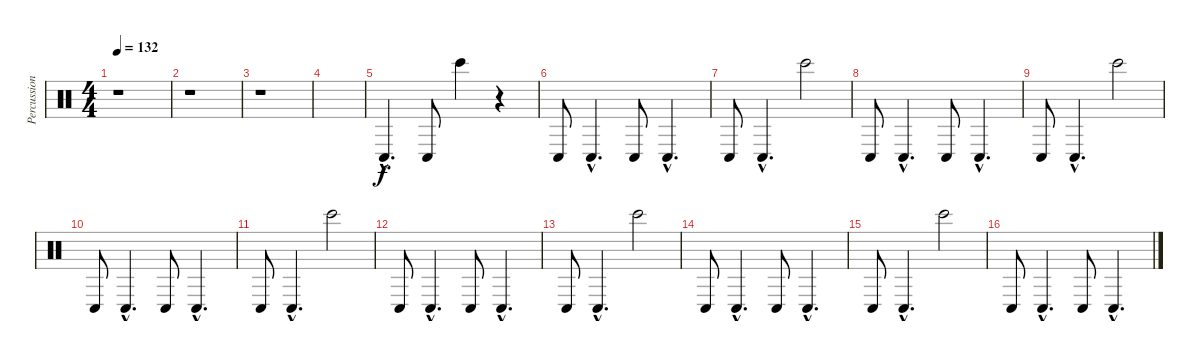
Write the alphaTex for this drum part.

\track ("Percussion" "Percussion") {instrument percussion}
\staff {score}
\articulation defaults
\ts (4 4)
\tempo 132
\clef neutral
\ks c
r.1{dy f} |
r.1 |
r.1 |
|
"Conga low (hit)"{hac}.4{d} "Conga low (hit)".8 "Bongo High (hit)".4 r.4 |
"Conga low (hit)".8 "Conga low (hit)"{hac}.4{d} "Conga low (hit)".8 "Conga low (hit)"{hac}.4{d} |
"Conga low (hit)".8 "Conga low (hit)"{hac}.4{d} "Bongo High (hit)".2 |
"Conga low (hit)".8 "Conga low (hit)"{hac}.4{d} "Conga low (hit)".8 "Conga low (hit)"{hac}.4{d} |
"Conga low (hit)".8 "Conga low (hit)"{hac}.4{d} "Bongo High (hit)".2 |
"Conga low (hit)".8 "Conga low (hit)"{hac}.4{d} "Conga low (hit)".8 "Conga low (hit)"{hac}.4{d} |
"Conga low (hit)".8 "Conga low (hit)"{hac}.4{d} "Bongo High (hit)".2 |
"Conga low (hit)".8 "Conga low (hit)"{hac}.4{d} "Conga low (hit)".8 "Conga low (hit)"{hac}.4{d} |
"Conga low (hit)".8 "Conga low (hit)"{hac}.4{d} "Bongo High (hit)".2 |
"Conga low (hit)".8 "Conga low (hit)"{hac}.4{d} "Conga low (hit)".8 "Conga low (hit)"{hac}.4{d} |
"Conga low (hit)".8 "Conga low (hit)"{hac}.4{d} "Bongo High (hit)".2 |
"Conga low (hit)".8 "Conga low (hit)"{hac}.4{d} "Conga low (hit)".8 "Conga low (hit)"{hac}.4{d}
